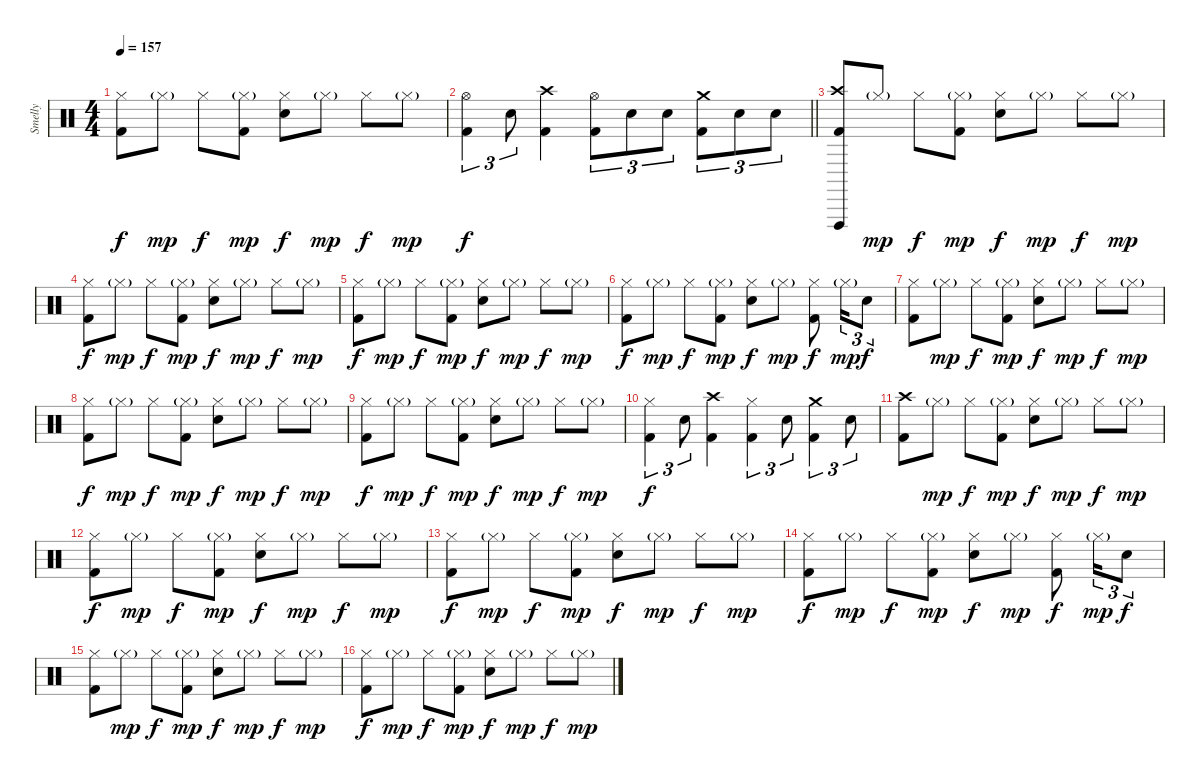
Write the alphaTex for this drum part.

\track ("Smelly" "Smelly") {instrument percussion}
\staff {score}
\articulation defaults
\ts (4 4)
\tempo 157
\clef neutral
\ks c
("Hi-Hat (closed)" "Kick (hit) 2").8{dy f} "Hi-Hat (closed)"{g}.8{dy mp} "Hi-Hat (closed)".8{dy f} ("Hi-Hat (closed)"{g} "Kick (hit) 2").8{dy mp} ("Hi-Hat (closed)" "Electric Snare (hit)").8{dy f} "Hi-Hat (closed)"{g}.8{dy mp} "Hi-Hat (closed)".8{dy f} "Hi-Hat (closed)"{g}.8{dy mp} |
\barLineRight lightlight
("Hi-Hat (open)" "Kick (hit) 2").4{tu (3 2) dy f} "Electric Snare (hit)".8{tu (3 2)} ("Crash high (hit)" "Kick (hit) 2").4 ("Hi-Hat (open)" "Kick (hit) 2").8{tu (3 2)} "Electric Snare (hit)".8{tu (3 2)} "Electric Snare (hit)".8{tu (3 2)} ("Crash medium (hit)" "Kick (hit) 2").8{tu (3 2)} "Electric Snare (hit)".8{tu (3 2)} "Electric Snare (hit)".8{tu (3 2)} |
\section ("" "")
("Crash high (hit)" "Vibraslap (hit)" "Kick (hit) 2").8 "Hi-Hat (closed)"{g}.8{dy mp} "Hi-Hat (closed)".8{dy f} ("Hi-Hat (closed)"{g} "Kick (hit) 2").8{dy mp} ("Hi-Hat (closed)" "Electric Snare (hit)").8{dy f} "Hi-Hat (closed)"{g}.8{dy mp} "Hi-Hat (closed)".8{dy f} "Hi-Hat (closed)"{g}.8{dy mp} |
("Hi-Hat (closed)" "Kick (hit) 2").8{dy f} "Hi-Hat (closed)"{g}.8{dy mp} "Hi-Hat (closed)".8{dy f} ("Hi-Hat (closed)"{g} "Kick (hit) 2").8{dy mp} ("Hi-Hat (closed)" "Electric Snare (hit)").8{dy f} "Hi-Hat (closed)"{g}.8{dy mp} "Hi-Hat (closed)".8{dy f} "Hi-Hat (closed)"{g}.8{dy mp} |
("Hi-Hat (closed)" "Kick (hit) 2").8{dy f} "Hi-Hat (closed)"{g}.8{dy mp} "Hi-Hat (closed)".8{dy f} ("Hi-Hat (closed)"{g} "Kick (hit) 2").8{dy mp} ("Hi-Hat (closed)" "Electric Snare (hit)").8{dy f} "Hi-Hat (closed)"{g}.8{dy mp} "Hi-Hat (closed)".8{dy f} "Hi-Hat (closed)"{g}.8{dy mp} |
("Hi-Hat (closed)" "Kick (hit) 2").8{dy f} "Hi-Hat (closed)"{g}.8{dy mp} "Hi-Hat (closed)".8{dy f} ("Hi-Hat (closed)"{g} "Kick (hit) 2").8{dy mp} ("Hi-Hat (closed)" "Electric Snare (hit)").8{dy f} "Hi-Hat (closed)"{g}.8{dy mp} ("Hi-Hat (closed)" "Kick (hit) 2").8{dy f} "Hi-Hat (closed)"{g}.16{tu (3 2) dy mp} "Electric Snare (hit)".8{tu (3 2) dy f} |
("Hi-Hat (closed)" "Kick (hit) 2").8 "Hi-Hat (closed)"{g}.8{dy mp} "Hi-Hat (closed)".8{dy f} ("Hi-Hat (closed)"{g} "Kick (hit) 2").8{dy mp} ("Hi-Hat (closed)" "Electric Snare (hit)").8{dy f} "Hi-Hat (closed)"{g}.8{dy mp} "Hi-Hat (closed)".8{dy f} "Hi-Hat (closed)"{g}.8{dy mp} |
("Hi-Hat (closed)" "Kick (hit) 2").8{dy f} "Hi-Hat (closed)"{g}.8{dy mp} "Hi-Hat (closed)".8{dy f} ("Hi-Hat (closed)"{g} "Kick (hit) 2").8{dy mp} ("Hi-Hat (closed)" "Electric Snare (hit)").8{dy f} "Hi-Hat (closed)"{g}.8{dy mp} "Hi-Hat (closed)".8{dy f} "Hi-Hat (closed)"{g}.8{dy mp} |
("Hi-Hat (closed)" "Kick (hit) 2").8{dy f} "Hi-Hat (closed)"{g}.8{dy mp} "Hi-Hat (closed)".8{dy f} ("Hi-Hat (closed)"{g} "Kick (hit) 2").8{dy mp} ("Hi-Hat (closed)" "Electric Snare (hit)").8{dy f} "Hi-Hat (closed)"{g}.8{dy mp} "Hi-Hat (closed)".8{dy f} "Hi-Hat (closed)"{g}.8{dy mp} |
("Hi-Hat (closed)" "Kick (hit) 2").4{tu (3 2) dy f} "Electric Snare (hit)".8{tu (3 2)} ("Crash high (hit)" "Kick (hit) 2").4 ("Hi-Hat (closed)" "Kick (hit) 2").4{tu (3 2)} "Electric Snare (hit)".8{tu (3 2)} ("Crash medium (hit)" "Kick (hit) 2").4{tu (3 2)} "Electric Snare (hit)".8{tu (3 2)} |
("Crash high (hit)" "Kick (hit) 2").8 "Hi-Hat (closed)"{g}.8{dy mp} "Hi-Hat (closed)".8{dy f} ("Hi-Hat (closed)"{g} "Kick (hit) 2").8{dy mp} ("Hi-Hat (closed)" "Electric Snare (hit)").8{dy f} "Hi-Hat (closed)"{g}.8{dy mp} "Hi-Hat (closed)".8{dy f} "Hi-Hat (closed)"{g}.8{dy mp} |
("Hi-Hat (closed)" "Kick (hit) 2").8{dy f} "Hi-Hat (closed)"{g}.8{dy mp} "Hi-Hat (closed)".8{dy f} ("Hi-Hat (closed)"{g} "Kick (hit) 2").8{dy mp} ("Hi-Hat (closed)" "Electric Snare (hit)").8{dy f} "Hi-Hat (closed)"{g}.8{dy mp} "Hi-Hat (closed)".8{dy f} "Hi-Hat (closed)"{g}.8{dy mp} |
("Hi-Hat (closed)" "Kick (hit) 2").8{dy f} "Hi-Hat (closed)"{g}.8{dy mp} "Hi-Hat (closed)".8{dy f} ("Hi-Hat (closed)"{g} "Kick (hit) 2").8{dy mp} ("Hi-Hat (closed)" "Electric Snare (hit)").8{dy f} "Hi-Hat (closed)"{g}.8{dy mp} "Hi-Hat (closed)".8{dy f} "Hi-Hat (closed)"{g}.8{dy mp} |
("Hi-Hat (closed)" "Kick (hit) 2").8{dy f} "Hi-Hat (closed)"{g}.8{dy mp} "Hi-Hat (closed)".8{dy f} ("Hi-Hat (closed)"{g} "Kick (hit) 2").8{dy mp} ("Hi-Hat (closed)" "Electric Snare (hit)").8{dy f} "Hi-Hat (closed)"{g}.8{dy mp} ("Hi-Hat (closed)" "Kick (hit) 2").8{dy f} "Hi-Hat (closed)"{g}.16{tu (3 2) dy mp} "Electric Snare (hit)".8{tu (3 2) dy f} |
("Hi-Hat (closed)" "Kick (hit) 2").8 "Hi-Hat (closed)"{g}.8{dy mp} "Hi-Hat (closed)".8{dy f} ("Hi-Hat (closed)"{g} "Kick (hit) 2").8{dy mp} ("Hi-Hat (closed)" "Electric Snare (hit)").8{dy f} "Hi-Hat (closed)"{g}.8{dy mp} "Hi-Hat (closed)".8{dy f} "Hi-Hat (closed)"{g}.8{dy mp} |
("Hi-Hat (closed)" "Kick (hit) 2").8{dy f} "Hi-Hat (closed)"{g}.8{dy mp} "Hi-Hat (closed)".8{dy f} ("Hi-Hat (closed)"{g} "Kick (hit) 2").8{dy mp} ("Hi-Hat (closed)" "Electric Snare (hit)").8{dy f} "Hi-Hat (closed)"{g}.8{dy mp} "Hi-Hat (closed)".8{dy f} "Hi-Hat (closed)"{g}.8{dy mp}
